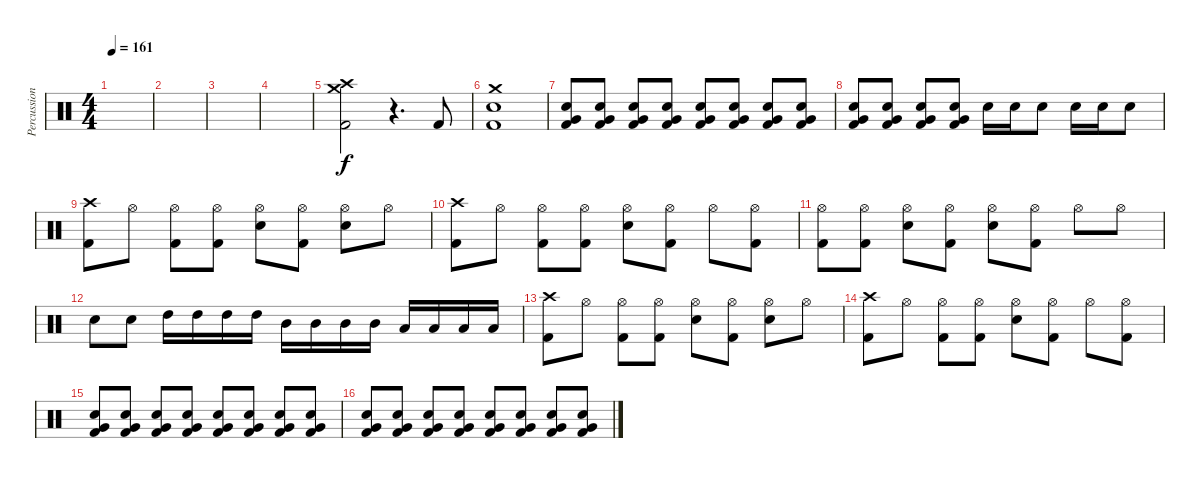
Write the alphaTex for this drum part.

\track ("Percussions" "Percussion") {instrument percussion}
\staff {score}
\articulation defaults
\ts (4 4)
\tempo 161
\clef neutral
\ks c
|
|
|
|
("Kick (hit) 2" "Crash high (hit)" "Crash medium (hit)").2 r.4{d} "Kick (hit) 2".8 |
("Kick (hit) 2" "Crash medium (hit)" "Electric Snare (hit)").1 |
("Kick (hit) 2" "Very Low Tom (hit)" "Electric Snare (hit)").8 ("Kick (hit) 2" "Very Low Tom (hit)" "Electric Snare (hit)").8 ("Kick (hit) 2" "Very Low Tom (hit)" "Electric Snare (hit)").8 ("Kick (hit) 2" "Very Low Tom (hit)" "Electric Snare (hit)").8 ("Kick (hit) 2" "Very Low Tom (hit)" "Electric Snare (hit)").8 ("Kick (hit) 2" "Very Low Tom (hit)" "Electric Snare (hit)").8 ("Kick (hit) 2" "Very Low Tom (hit)" "Electric Snare (hit)").8 ("Kick (hit) 2" "Very Low Tom (hit)" "Electric Snare (hit)").8 |
("Kick (hit) 2" "Very Low Tom (hit)" "Electric Snare (hit)").8 ("Kick (hit) 2" "Very Low Tom (hit)" "Electric Snare (hit)").8 ("Kick (hit) 2" "Very Low Tom (hit)" "Electric Snare (hit)").8 ("Kick (hit) 2" "Very Low Tom (hit)" "Electric Snare (hit)").8 "Electric Snare (hit)".16 "Electric Snare (hit)".16 "Electric Snare (hit)".8 "Electric Snare (hit)".16 "Electric Snare (hit)".16 "Electric Snare (hit)".8 |
("Kick (hit) 2" "Crash high (hit)").8 "Hi-Hat (open)".8 ("Kick (hit) 2" "Hi-Hat (open)").8 ("Kick (hit) 2" "Hi-Hat (open)").8 ("Electric Snare (hit)" "Hi-Hat (open)").8 ("Kick (hit) 2" "Hi-Hat (open)").8 ("Electric Snare (hit)" "Hi-Hat (open)").8 "Hi-Hat (open)".8 |
("Kick (hit) 2" "Crash high (hit)").8 "Hi-Hat (open)".8 ("Kick (hit) 2" "Hi-Hat (open)").8 ("Kick (hit) 2" "Hi-Hat (open)").8 ("Electric Snare (hit)" "Hi-Hat (open)").8 ("Kick (hit) 2" "Hi-Hat (open)").8 "Hi-Hat (open)".8 ("Kick (hit) 2" "Hi-Hat (open)").8 |
("Kick (hit) 2" "Hi-Hat (open)").8 ("Kick (hit) 2" "Hi-Hat (open)").8 ("Electric Snare (hit)" "Hi-Hat (open)").8 ("Kick (hit) 2" "Hi-Hat (open)").8 ("Electric Snare (hit)" "Hi-Hat (open)").8 ("Kick (hit) 2" "Hi-Hat (open)").8 "Hi-Hat (open)".8 "Hi-Hat (open)".8 |
"Electric Snare (hit)".8 "Electric Snare (hit)".8 "High Tom (hit)".16 "High Tom (hit)".16 "High Tom (hit)".16 "High Tom (hit)".16 "Mid Tom (hit)".16 "Mid Tom (hit)".16 "Mid Tom (hit)".16 "Mid Tom (hit)".16 "Low Tom (hit)".16 "Low Tom (hit)".16 "Low Tom (hit)".16 "Low Tom (hit)".16 |
("Kick (hit) 2" "Crash high (hit)").8 "Hi-Hat (open)".8 ("Kick (hit) 2" "Hi-Hat (open)").8 ("Kick (hit) 2" "Hi-Hat (open)").8 ("Electric Snare (hit)" "Hi-Hat (open)").8 ("Kick (hit) 2" "Hi-Hat (open)").8 ("Electric Snare (hit)" "Hi-Hat (open)").8 "Hi-Hat (open)".8 |
("Kick (hit) 2" "Crash high (hit)").8 "Hi-Hat (open)".8 ("Kick (hit) 2" "Hi-Hat (open)").8 ("Kick (hit) 2" "Hi-Hat (open)").8 ("Electric Snare (hit)" "Hi-Hat (open)").8 ("Kick (hit) 2" "Hi-Hat (open)").8 "Hi-Hat (open)".8 ("Kick (hit) 2" "Hi-Hat (open)").8 |
("Kick (hit) 2" "Very Low Tom (hit)" "Electric Snare (hit)").8 ("Kick (hit) 2" "Very Low Tom (hit)" "Electric Snare (hit)").8 ("Kick (hit) 2" "Very Low Tom (hit)" "Electric Snare (hit)").8 ("Kick (hit) 2" "Very Low Tom (hit)" "Electric Snare (hit)").8 ("Kick (hit) 2" "Very Low Tom (hit)" "Electric Snare (hit)").8 ("Kick (hit) 2" "Very Low Tom (hit)" "Electric Snare (hit)").8 ("Kick (hit) 2" "Very Low Tom (hit)" "Electric Snare (hit)").8 ("Kick (hit) 2" "Very Low Tom (hit)" "Electric Snare (hit)").8 |
("Kick (hit) 2" "Very Low Tom (hit)" "Electric Snare (hit)").8 ("Kick (hit) 2" "Very Low Tom (hit)" "Electric Snare (hit)").8 ("Kick (hit) 2" "Very Low Tom (hit)" "Electric Snare (hit)").8 ("Kick (hit) 2" "Very Low Tom (hit)" "Electric Snare (hit)").8 ("Kick (hit) 2" "Very Low Tom (hit)" "Electric Snare (hit)").8 ("Kick (hit) 2" "Very Low Tom (hit)" "Electric Snare (hit)").8 ("Kick (hit) 2" "Very Low Tom (hit)" "Electric Snare (hit)").8 ("Kick (hit) 2" "Very Low Tom (hit)" "Electric Snare (hit)").8
